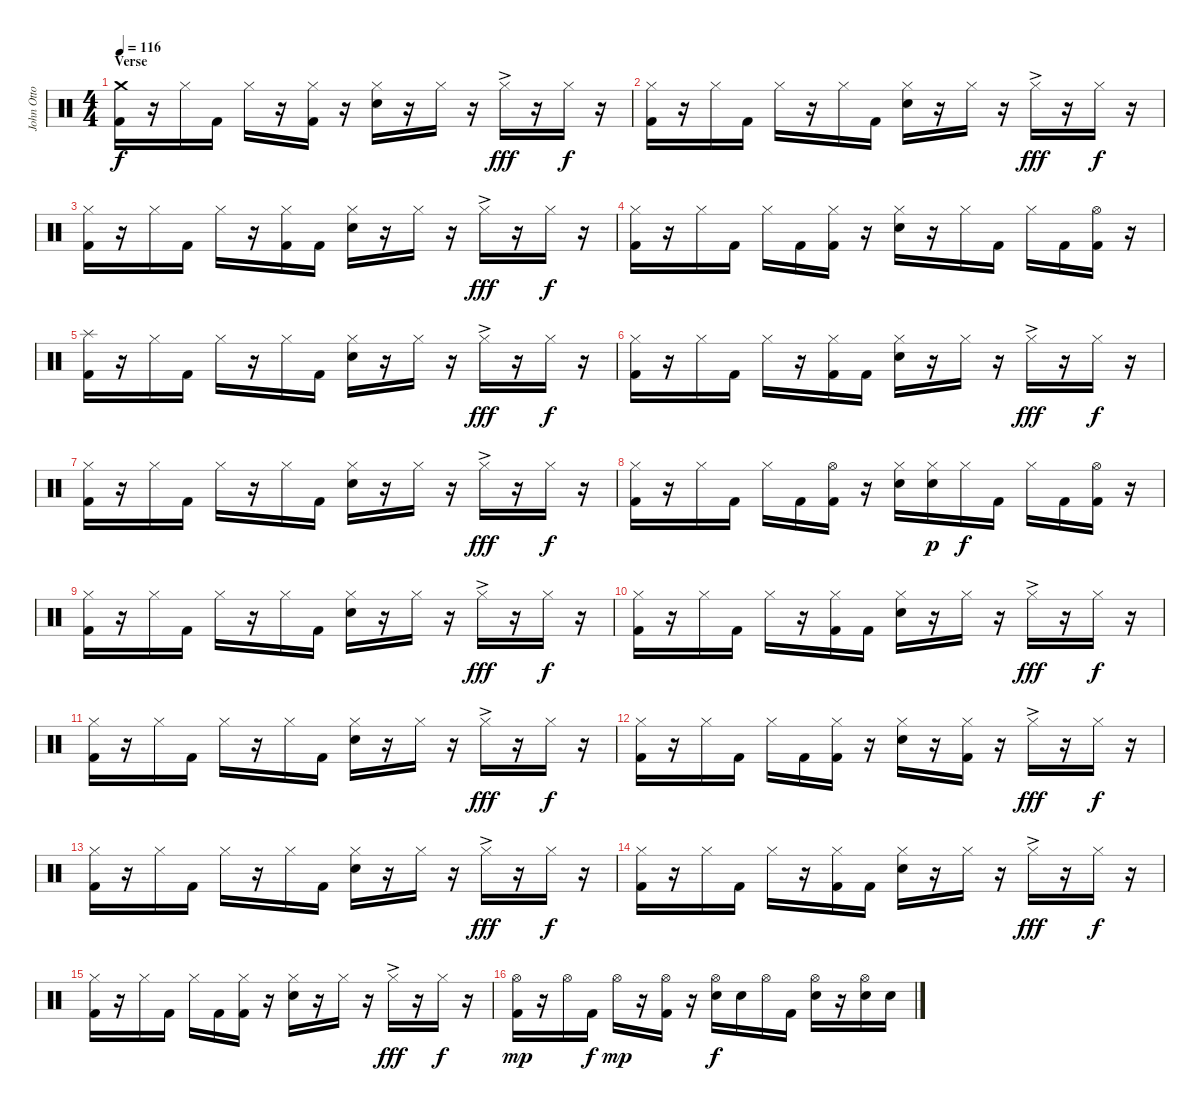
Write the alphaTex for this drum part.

\track ("John Otto - Drums" "John Otto ") {instrument percussion}
\staff {score}
\articulation defaults
\ts (4 4)
\section ("" "Verse")
\tempo 116
\clef neutral
\ks c
("Crash medium (hit)" "Kick (hit) 2").16{dy f} r.16 "Hi-Hat (closed)".16 "Kick (hit) 2".16 "Hi-Hat (closed)".16 r.16 ("Hi-Hat (closed)" "Kick (hit) 2").16 r.16 ("Hi-Hat (closed)" "Electric Snare (hit)").16 r.16 "Hi-Hat (closed)".16 r.16 "Hi-Hat (closed)"{ac}.16{dy fff} r.16 "Hi-Hat (closed)".16{dy f} r.16 |
("Hi-Hat (closed)" "Kick (hit) 2").16 r.16 "Hi-Hat (closed)".16 "Kick (hit) 2".16 "Hi-Hat (closed)".16 r.16 "Hi-Hat (closed)".16 "Kick (hit) 2".16 ("Hi-Hat (closed)" "Electric Snare (hit)").16 r.16 "Hi-Hat (closed)".16 r.16 "Hi-Hat (closed)"{ac}.16{dy fff} r.16 "Hi-Hat (closed)".16{dy f} r.16 |
("Hi-Hat (closed)" "Kick (hit) 2").16 r.16 "Hi-Hat (closed)".16 "Kick (hit) 2".16 "Hi-Hat (closed)".16 r.16 ("Hi-Hat (closed)" "Kick (hit) 2").16 "Kick (hit) 2".16 ("Hi-Hat (closed)" "Electric Snare (hit)").16 r.16 "Hi-Hat (closed)".16 r.16 "Hi-Hat (closed)"{ac}.16{dy fff} r.16 "Hi-Hat (closed)".16{dy f} r.16 |
("Hi-Hat (closed)" "Kick (hit) 2").16 r.16 "Hi-Hat (closed)".16 "Kick (hit) 2".16 "Hi-Hat (closed)".16 "Kick (hit) 2".16 ("Hi-Hat (closed)" "Kick (hit) 2").16 r.16 ("Hi-Hat (closed)" "Electric Snare (hit)").16 r.16 "Hi-Hat (closed)".16 "Kick (hit) 2".16 "Hi-Hat (closed)".16 "Kick (hit) 2".16 ("Hi-Hat (open)" "Kick (hit) 2").16 r.16 |
("Splash (hit)" "Kick (hit) 2").16 r.16 "Hi-Hat (closed)".16 "Kick (hit) 2".16 "Hi-Hat (closed)".16 r.16 "Hi-Hat (closed)".16 "Kick (hit) 2".16 ("Hi-Hat (closed)" "Electric Snare (hit)").16 r.16 "Hi-Hat (closed)".16 r.16 "Hi-Hat (closed)"{ac}.16{dy fff} r.16 "Hi-Hat (closed)".16{dy f} r.16 |
("Hi-Hat (closed)" "Kick (hit) 2").16 r.16 "Hi-Hat (closed)".16 "Kick (hit) 2".16 "Hi-Hat (closed)".16 r.16 ("Hi-Hat (closed)" "Kick (hit) 2").16 "Kick (hit) 2".16 ("Hi-Hat (closed)" "Electric Snare (hit)").16 r.16 "Hi-Hat (closed)".16 r.16 "Hi-Hat (closed)"{ac}.16{dy fff} r.16 "Hi-Hat (closed)".16{dy f} r.16 |
("Hi-Hat (closed)" "Kick (hit) 2").16 r.16 "Hi-Hat (closed)".16 "Kick (hit) 2".16 "Hi-Hat (closed)".16 r.16 "Hi-Hat (closed)".16 "Kick (hit) 2".16 ("Hi-Hat (closed)" "Electric Snare (hit)").16 r.16 "Hi-Hat (closed)".16 r.16 "Hi-Hat (closed)"{ac}.16{dy fff} r.16 "Hi-Hat (closed)".16{dy f} r.16 |
("Hi-Hat (closed)" "Kick (hit) 2").16 r.16 "Hi-Hat (closed)".16 "Kick (hit) 2".16 "Hi-Hat (closed)".16 "Kick (hit) 2".16 ("Hi-Hat (open)" "Kick (hit) 2").16 r.16 ("Hi-Hat (closed)" "Electric Snare (hit)").16 ("Hi-Hat (closed)" "Electric Snare (hit)").16{dy p} "Hi-Hat (closed)".16{dy f} "Kick (hit) 2".16 "Hi-Hat (closed)".16 "Kick (hit) 2".16 ("Hi-Hat (open)" "Kick (hit) 2").16 r.16 |
("Hi-Hat (closed)" "Kick (hit) 2").16 r.16 "Hi-Hat (closed)".16 "Kick (hit) 2".16 "Hi-Hat (closed)".16 r.16 "Hi-Hat (closed)".16 "Kick (hit) 2".16 ("Hi-Hat (closed)" "Electric Snare (hit)").16 r.16 "Hi-Hat (closed)".16 r.16 "Hi-Hat (closed)"{ac}.16{dy fff} r.16 "Hi-Hat (closed)".16{dy f} r.16 |
("Hi-Hat (closed)" "Kick (hit) 2").16 r.16 "Hi-Hat (closed)".16 "Kick (hit) 2".16 "Hi-Hat (closed)".16 r.16 ("Hi-Hat (closed)" "Kick (hit) 2").16 "Kick (hit) 2".16 ("Hi-Hat (closed)" "Electric Snare (hit)").16 r.16 "Hi-Hat (closed)".16 r.16 "Hi-Hat (closed)"{ac}.16{dy fff} r.16 "Hi-Hat (closed)".16{dy f} r.16 |
("Hi-Hat (closed)" "Kick (hit) 2").16 r.16 "Hi-Hat (closed)".16 "Kick (hit) 2".16 "Hi-Hat (closed)".16 r.16 "Hi-Hat (closed)".16 "Kick (hit) 2".16 ("Hi-Hat (closed)" "Electric Snare (hit)").16 r.16 "Hi-Hat (closed)".16 r.16 "Hi-Hat (closed)"{ac}.16{dy fff} r.16 "Hi-Hat (closed)".16{dy f} r.16 |
("Hi-Hat (closed)" "Kick (hit) 2").16 r.16 "Hi-Hat (closed)".16 "Kick (hit) 2".16 "Hi-Hat (closed)".16 "Kick (hit) 2".16 ("Hi-Hat (closed)" "Kick (hit) 2").16 r.16 ("Hi-Hat (closed)" "Electric Snare (hit)").16 r.16 ("Hi-Hat (closed)" "Kick (hit) 2").16 r.16 "Hi-Hat (closed)"{ac}.16{dy fff} r.16 "Hi-Hat (closed)".16{dy f} r.16 |
("Hi-Hat (closed)" "Kick (hit) 2").16 r.16 "Hi-Hat (closed)".16 "Kick (hit) 2".16 "Hi-Hat (closed)".16 r.16 "Hi-Hat (closed)".16 "Kick (hit) 2".16 ("Hi-Hat (closed)" "Electric Snare (hit)").16 r.16 "Hi-Hat (closed)".16 r.16 "Hi-Hat (closed)"{ac}.16{dy fff} r.16 "Hi-Hat (closed)".16{dy f} r.16 |
("Hi-Hat (closed)" "Kick (hit) 2").16 r.16 "Hi-Hat (closed)".16 "Kick (hit) 2".16 "Hi-Hat (closed)".16 r.16 ("Hi-Hat (closed)" "Kick (hit) 2").16 "Kick (hit) 2".16 ("Hi-Hat (closed)" "Electric Snare (hit)").16 r.16 "Hi-Hat (closed)".16 r.16 "Hi-Hat (closed)"{ac}.16{dy fff} r.16 "Hi-Hat (closed)".16{dy f} r.16 |
("Hi-Hat (closed)" "Kick (hit) 2").16 r.16 "Hi-Hat (closed)".16 "Kick (hit) 2".16 "Hi-Hat (closed)".16 "Kick (hit) 2".16 ("Hi-Hat (closed)" "Kick (hit) 2").16 r.16 ("Hi-Hat (closed)" "Electric Snare (hit)").16 r.16 "Hi-Hat (closed)".16 r.16 "Hi-Hat (closed)"{ac}.16{dy fff} r.16 "Hi-Hat (closed)".16{dy f} r.16 |
("Hi-Hat (open)" "Kick (hit) 2").16{dy mp} r.16 "Hi-Hat (open)".16 "Kick (hit) 2".16{dy f} "Hi-Hat (open)".16{dy mp} r.16 ("Hi-Hat (open)" "Kick (hit) 2").16 r.16 ("Hi-Hat (open)" "Electric Snare (hit)").16{dy f} "Electric Snare (hit)".16 "Hi-Hat (open)".16 "Kick (hit) 2".16 ("Hi-Hat (open)" "Electric Snare (hit)").16 r.16 ("Hi-Hat (open)" "Electric Snare (hit)").16 "Electric Snare (hit)".16
